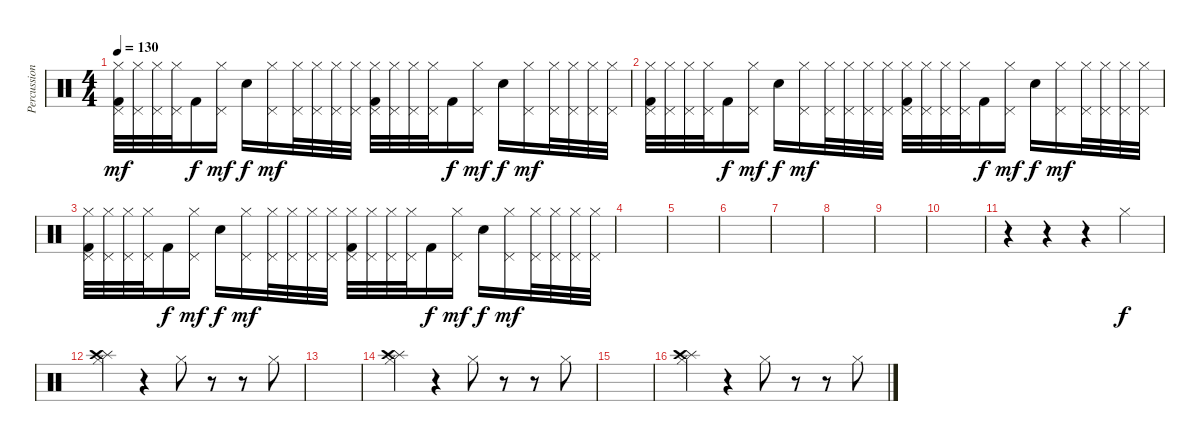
\track ("Percussion" "Percussion") {instrument percussion}
\staff {score}
\articulation defaults
\ts (4 4)
\tempo 130
\clef neutral
\ks c
("Kick (hit) 2" "Hi-Hat (closed)" "Pedal Hi-Hat (hit)").32{dy mf} ("Hi-Hat (closed)" "Pedal Hi-Hat (hit)").32 ("Hi-Hat (closed)" "Pedal Hi-Hat (hit)").32 ("Hi-Hat (closed)" "Pedal Hi-Hat (hit)").32 "Kick (hit) 2".16{dy f} ("Hi-Hat (closed)" "Pedal Hi-Hat (hit)").16{dy mf} "Electric Snare (hit)".16{dy f} ("Hi-Hat (closed)" "Pedal Hi-Hat (hit)").16{dy mf} ("Hi-Hat (closed)" "Pedal Hi-Hat (hit)").32 ("Hi-Hat (closed)" "Pedal Hi-Hat (hit)").32 ("Hi-Hat (closed)" "Pedal Hi-Hat (hit)").32 ("Hi-Hat (closed)" "Pedal Hi-Hat (hit)").32 ("Kick (hit) 2" "Hi-Hat (closed)" "Pedal Hi-Hat (hit)").32 ("Hi-Hat (closed)" "Pedal Hi-Hat (hit)").32 ("Hi-Hat (closed)" "Pedal Hi-Hat (hit)").32 ("Hi-Hat (closed)" "Pedal Hi-Hat (hit)").32 "Kick (hit) 2".16{dy f} ("Hi-Hat (closed)" "Pedal Hi-Hat (hit)").16{dy mf} "Electric Snare (hit)".16{dy f} ("Hi-Hat (closed)" "Pedal Hi-Hat (hit)").16{dy mf} ("Hi-Hat (closed)" "Pedal Hi-Hat (hit)").32 ("Hi-Hat (closed)" "Pedal Hi-Hat (hit)").32 ("Hi-Hat (closed)" "Pedal Hi-Hat (hit)").32 ("Hi-Hat (closed)" "Pedal Hi-Hat (hit)").32 |
("Kick (hit) 2" "Hi-Hat (closed)" "Pedal Hi-Hat (hit)").32 ("Hi-Hat (closed)" "Pedal Hi-Hat (hit)").32 ("Hi-Hat (closed)" "Pedal Hi-Hat (hit)").32 ("Hi-Hat (closed)" "Pedal Hi-Hat (hit)").32 "Kick (hit) 2".16{dy f} ("Hi-Hat (closed)" "Pedal Hi-Hat (hit)").16{dy mf} "Electric Snare (hit)".16{dy f} ("Hi-Hat (closed)" "Pedal Hi-Hat (hit)").16{dy mf} ("Hi-Hat (closed)" "Pedal Hi-Hat (hit)").32 ("Hi-Hat (closed)" "Pedal Hi-Hat (hit)").32 ("Hi-Hat (closed)" "Pedal Hi-Hat (hit)").32 ("Hi-Hat (closed)" "Pedal Hi-Hat (hit)").32 ("Kick (hit) 2" "Hi-Hat (closed)" "Pedal Hi-Hat (hit)").32 ("Hi-Hat (closed)" "Pedal Hi-Hat (hit)").32 ("Hi-Hat (closed)" "Pedal Hi-Hat (hit)").32 ("Hi-Hat (closed)" "Pedal Hi-Hat (hit)").32 "Kick (hit) 2".16{dy f} ("Hi-Hat (closed)" "Pedal Hi-Hat (hit)").16{dy mf} "Electric Snare (hit)".16{dy f} ("Hi-Hat (closed)" "Pedal Hi-Hat (hit)").16{dy mf} ("Hi-Hat (closed)" "Pedal Hi-Hat (hit)").32 ("Hi-Hat (closed)" "Pedal Hi-Hat (hit)").32 ("Hi-Hat (closed)" "Pedal Hi-Hat (hit)").32 ("Hi-Hat (closed)" "Pedal Hi-Hat (hit)").32 |
("Kick (hit) 2" "Hi-Hat (closed)" "Pedal Hi-Hat (hit)").32 ("Hi-Hat (closed)" "Pedal Hi-Hat (hit)").32 ("Hi-Hat (closed)" "Pedal Hi-Hat (hit)").32 ("Hi-Hat (closed)" "Pedal Hi-Hat (hit)").32 "Kick (hit) 2".16{dy f} ("Hi-Hat (closed)" "Pedal Hi-Hat (hit)").16{dy mf} "Electric Snare (hit)".16{dy f} ("Hi-Hat (closed)" "Pedal Hi-Hat (hit)").16{dy mf} ("Hi-Hat (closed)" "Pedal Hi-Hat (hit)").32 ("Hi-Hat (closed)" "Pedal Hi-Hat (hit)").32 ("Hi-Hat (closed)" "Pedal Hi-Hat (hit)").32 ("Hi-Hat (closed)" "Pedal Hi-Hat (hit)").32 ("Kick (hit) 2" "Hi-Hat (closed)" "Pedal Hi-Hat (hit)").32 ("Hi-Hat (closed)" "Pedal Hi-Hat (hit)").32 ("Hi-Hat (closed)" "Pedal Hi-Hat (hit)").32 ("Hi-Hat (closed)" "Pedal Hi-Hat (hit)").32 "Kick (hit) 2".16{dy f} ("Hi-Hat (closed)" "Pedal Hi-Hat (hit)").16{dy mf} "Electric Snare (hit)".16{dy f} ("Hi-Hat (closed)" "Pedal Hi-Hat (hit)").16{dy mf} ("Hi-Hat (closed)" "Pedal Hi-Hat (hit)").32 ("Hi-Hat (closed)" "Pedal Hi-Hat (hit)").32 ("Hi-Hat (closed)" "Pedal Hi-Hat (hit)").32 ("Hi-Hat (closed)" "Pedal Hi-Hat (hit)").32 |
|
|
|
|
|
|
|
r.4 r.4 r.4 "Hi-Hat (closed)".4{dy f} |
("Hi-Hat (closed)" "Splash (hit)" "Crash high (hit)").4 r.4 "Hi-Hat (closed)".8 r.8 r.8 "Hi-Hat (closed)".8 |
|
("Hi-Hat (closed)" "Splash (hit)" "Crash high (hit)").4 r.4 "Hi-Hat (closed)".8 r.8 r.8 "Hi-Hat (closed)".8 |
|
("Hi-Hat (closed)" "Splash (hit)" "Crash high (hit)").4 r.4 "Hi-Hat (closed)".8 r.8 r.8 "Hi-Hat (closed)".8
